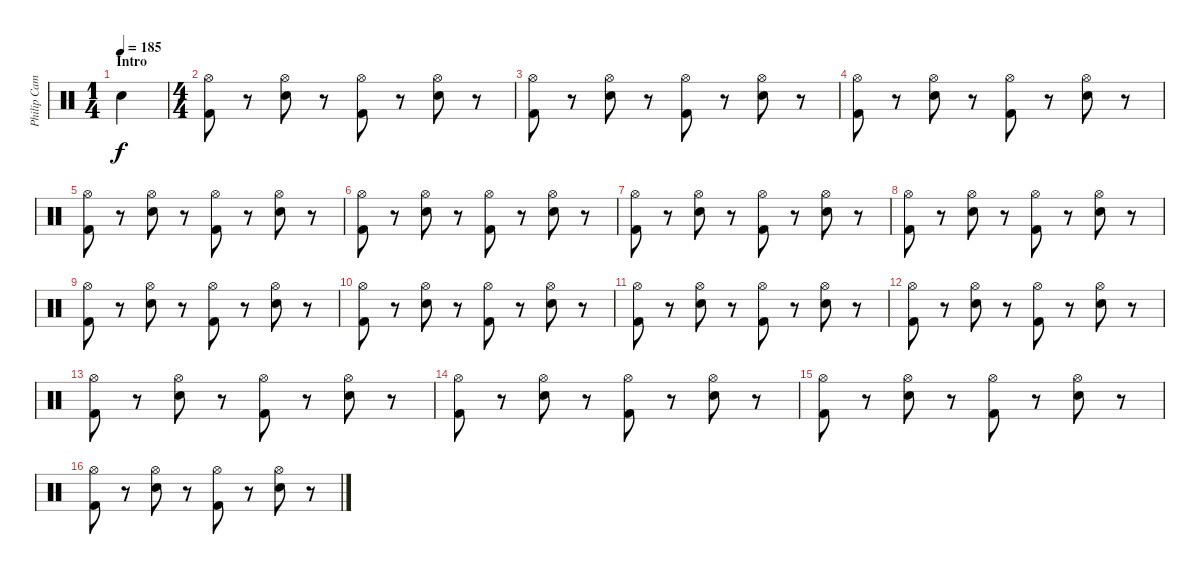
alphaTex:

\track ("Philip Campbell" "Philip Cam") {instrument percussion}
\staff {score}
\articulation defaults
\ts (1 4)
\section ("" "Intro")
\tempo 185
\clef neutral
\ks c "Electric Snare (hit)".4{dy f}
|
\ts (4 4)
("Hi-Hat (open)" "Kick (hit) 2").8 r.8 ("Hi-Hat (open)" "Electric Snare (hit)").8 r.8 ("Hi-Hat (open)" "Kick (hit) 2").8 r.8 ("Hi-Hat (open)" "Electric Snare (hit)").8 r.8 |
("Hi-Hat (open)" "Kick (hit) 2").8 r.8 ("Hi-Hat (open)" "Electric Snare (hit)").8 r.8 ("Hi-Hat (open)" "Kick (hit) 2").8 r.8 ("Hi-Hat (open)" "Electric Snare (hit)").8 r.8 |
("Hi-Hat (open)" "Kick (hit) 2").8 r.8 ("Hi-Hat (open)" "Electric Snare (hit)").8 r.8 ("Hi-Hat (open)" "Kick (hit) 2").8 r.8 ("Hi-Hat (open)" "Electric Snare (hit)").8 r.8 |
("Hi-Hat (open)" "Kick (hit) 2").8 r.8 ("Hi-Hat (open)" "Electric Snare (hit)").8 r.8 ("Hi-Hat (open)" "Kick (hit) 2").8 r.8 ("Hi-Hat (open)" "Electric Snare (hit)").8 r.8 |
("Hi-Hat (open)" "Kick (hit) 2").8 r.8 ("Hi-Hat (open)" "Electric Snare (hit)").8 r.8 ("Hi-Hat (open)" "Kick (hit) 2").8 r.8 ("Hi-Hat (open)" "Electric Snare (hit)").8 r.8 |
("Hi-Hat (open)" "Kick (hit) 2").8 r.8 ("Hi-Hat (open)" "Electric Snare (hit)").8 r.8 ("Hi-Hat (open)" "Kick (hit) 2").8 r.8 ("Hi-Hat (open)" "Electric Snare (hit)").8 r.8 |
("Hi-Hat (open)" "Kick (hit) 2").8 r.8 ("Hi-Hat (open)" "Electric Snare (hit)").8 r.8 ("Hi-Hat (open)" "Kick (hit) 2").8 r.8 ("Hi-Hat (open)" "Electric Snare (hit)").8 r.8 |
("Hi-Hat (open)" "Kick (hit) 2").8 r.8 ("Hi-Hat (open)" "Electric Snare (hit)").8 r.8 ("Hi-Hat (open)" "Kick (hit) 2").8 r.8 ("Hi-Hat (open)" "Electric Snare (hit)").8 r.8 |
("Hi-Hat (open)" "Kick (hit) 2").8 r.8 ("Hi-Hat (open)" "Electric Snare (hit)").8 r.8 ("Hi-Hat (open)" "Kick (hit) 2").8 r.8 ("Hi-Hat (open)" "Electric Snare (hit)").8 r.8 |
("Hi-Hat (open)" "Kick (hit) 2").8 r.8 ("Hi-Hat (open)" "Electric Snare (hit)").8 r.8 ("Hi-Hat (open)" "Kick (hit) 2").8 r.8 ("Hi-Hat (open)" "Electric Snare (hit)").8 r.8 |
("Hi-Hat (open)" "Kick (hit) 2").8 r.8 ("Hi-Hat (open)" "Electric Snare (hit)").8 r.8 ("Hi-Hat (open)" "Kick (hit) 2").8 r.8 ("Hi-Hat (open)" "Electric Snare (hit)").8 r.8 |
("Hi-Hat (open)" "Kick (hit) 2").8 r.8 ("Hi-Hat (open)" "Electric Snare (hit)").8 r.8 ("Hi-Hat (open)" "Kick (hit) 2").8 r.8 ("Hi-Hat (open)" "Electric Snare (hit)").8 r.8 |
("Hi-Hat (open)" "Kick (hit) 2").8 r.8 ("Hi-Hat (open)" "Electric Snare (hit)").8 r.8 ("Hi-Hat (open)" "Kick (hit) 2").8 r.8 ("Hi-Hat (open)" "Electric Snare (hit)").8 r.8 |
("Hi-Hat (open)" "Kick (hit) 2").8 r.8 ("Hi-Hat (open)" "Electric Snare (hit)").8 r.8 ("Hi-Hat (open)" "Kick (hit) 2").8 r.8 ("Hi-Hat (open)" "Electric Snare (hit)").8 r.8 |
("Hi-Hat (open)" "Kick (hit) 2").8 r.8 ("Hi-Hat (open)" "Electric Snare (hit)").8 r.8 ("Hi-Hat (open)" "Kick (hit) 2").8 r.8 ("Hi-Hat (open)" "Electric Snare (hit)").8 r.8
